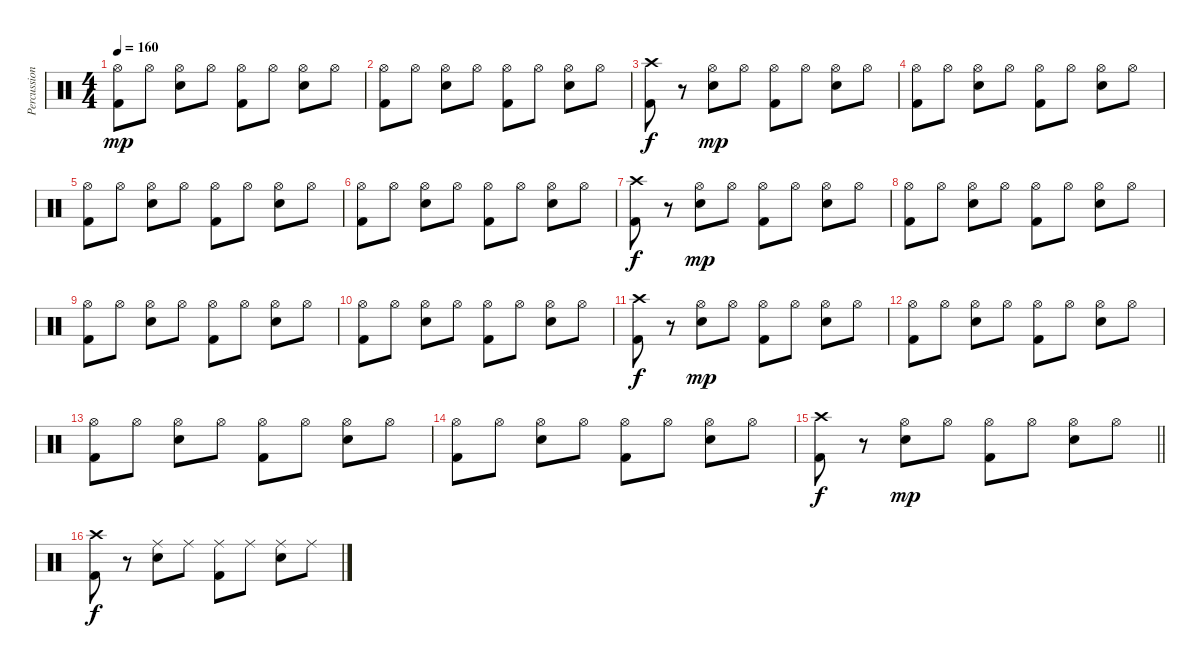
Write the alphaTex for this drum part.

\track ("Percussion - live 1983" "Percussion") {mute instrument percussion}
\staff {score}
\articulation defaults
\ts (4 4)
\tempo 160
\clef neutral
\ks c
("Hi-Hat (open)" "Kick (hit) 2").8{dy mp} "Hi-Hat (open)".8 ("Hi-Hat (open)" "Snare (hit) 2").8 "Hi-Hat (open)".8 ("Hi-Hat (open)" "Kick (hit) 2").8 "Hi-Hat (open)".8 ("Hi-Hat (open)" "Snare (hit) 2").8 "Hi-Hat (open)".8 |
("Hi-Hat (open)" "Kick (hit) 2").8 "Hi-Hat (open)".8 ("Hi-Hat (open)" "Snare (hit) 2").8 "Hi-Hat (open)".8 ("Hi-Hat (open)" "Kick (hit) 2").8 "Hi-Hat (open)".8 ("Hi-Hat (open)" "Snare (hit) 2").8 "Hi-Hat (open)".8 |
("Crash high (hit)" "Kick (hit) 2").8{dy f} r.8 ("Hi-Hat (open)" "Snare (hit) 2").8{dy mp} "Hi-Hat (open)".8 ("Hi-Hat (open)" "Kick (hit) 2").8 "Hi-Hat (open)".8 ("Hi-Hat (open)" "Snare (hit) 2").8 "Hi-Hat (open)".8 |
("Hi-Hat (open)" "Kick (hit) 2").8 "Hi-Hat (open)".8 ("Hi-Hat (open)" "Snare (hit) 2").8 "Hi-Hat (open)".8 ("Hi-Hat (open)" "Kick (hit) 2").8 "Hi-Hat (open)".8 ("Hi-Hat (open)" "Snare (hit) 2").8 "Hi-Hat (open)".8 |
("Hi-Hat (open)" "Kick (hit) 2").8 "Hi-Hat (open)".8 ("Hi-Hat (open)" "Snare (hit) 2").8 "Hi-Hat (open)".8 ("Hi-Hat (open)" "Kick (hit) 2").8 "Hi-Hat (open)".8 ("Hi-Hat (open)" "Snare (hit) 2").8 "Hi-Hat (open)".8 |
("Hi-Hat (open)" "Kick (hit) 2").8 "Hi-Hat (open)".8 ("Hi-Hat (open)" "Snare (hit) 2").8 "Hi-Hat (open)".8 ("Hi-Hat (open)" "Kick (hit) 2").8 "Hi-Hat (open)".8 ("Hi-Hat (open)" "Snare (hit) 2").8 "Hi-Hat (open)".8 |
("Crash high (hit)" "Kick (hit) 2").8{dy f} r.8 ("Hi-Hat (open)" "Snare (hit) 2").8{dy mp} "Hi-Hat (open)".8 ("Hi-Hat (open)" "Kick (hit) 2").8 "Hi-Hat (open)".8 ("Hi-Hat (open)" "Snare (hit) 2").8 "Hi-Hat (open)".8 |
("Hi-Hat (open)" "Kick (hit) 2").8 "Hi-Hat (open)".8 ("Hi-Hat (open)" "Snare (hit) 2").8 "Hi-Hat (open)".8 ("Hi-Hat (open)" "Kick (hit) 2").8 "Hi-Hat (open)".8 ("Hi-Hat (open)" "Snare (hit) 2").8 "Hi-Hat (open)".8 |
("Hi-Hat (open)" "Kick (hit) 2").8 "Hi-Hat (open)".8 ("Hi-Hat (open)" "Snare (hit) 2").8 "Hi-Hat (open)".8 ("Hi-Hat (open)" "Kick (hit) 2").8 "Hi-Hat (open)".8 ("Hi-Hat (open)" "Snare (hit) 2").8 "Hi-Hat (open)".8 |
("Hi-Hat (open)" "Kick (hit) 2").8 "Hi-Hat (open)".8 ("Hi-Hat (open)" "Snare (hit) 2").8 "Hi-Hat (open)".8 ("Hi-Hat (open)" "Kick (hit) 2").8 "Hi-Hat (open)".8 ("Hi-Hat (open)" "Snare (hit) 2").8 "Hi-Hat (open)".8 |
("Crash high (hit)" "Kick (hit) 2").8{dy f} r.8 ("Hi-Hat (open)" "Snare (hit) 2").8{dy mp} "Hi-Hat (open)".8 ("Hi-Hat (open)" "Kick (hit) 2").8 "Hi-Hat (open)".8 ("Hi-Hat (open)" "Snare (hit) 2").8 "Hi-Hat (open)".8 |
("Hi-Hat (open)" "Kick (hit) 2").8 "Hi-Hat (open)".8 ("Hi-Hat (open)" "Snare (hit) 2").8 "Hi-Hat (open)".8 ("Hi-Hat (open)" "Kick (hit) 2").8 "Hi-Hat (open)".8 ("Hi-Hat (open)" "Snare (hit) 2").8 "Hi-Hat (open)".8 |
("Hi-Hat (open)" "Kick (hit) 2").8 "Hi-Hat (open)".8 ("Hi-Hat (open)" "Snare (hit) 2").8 "Hi-Hat (open)".8 ("Hi-Hat (open)" "Kick (hit) 2").8 "Hi-Hat (open)".8 ("Hi-Hat (open)" "Snare (hit) 2").8 "Hi-Hat (open)".8 |
("Hi-Hat (open)" "Kick (hit) 2").8 "Hi-Hat (open)".8 ("Hi-Hat (open)" "Snare (hit) 2").8 "Hi-Hat (open)".8 ("Hi-Hat (open)" "Kick (hit) 2").8 "Hi-Hat (open)".8 ("Hi-Hat (open)" "Snare (hit) 2").8 "Hi-Hat (open)".8 |
\barLineRight lightlight
("Crash high (hit)" "Kick (hit) 2").8{dy f} r.8 ("Hi-Hat (open)" "Snare (hit) 2").8{dy mp} "Hi-Hat (open)".8 ("Hi-Hat (open)" "Kick (hit) 2").8 "Hi-Hat (open)".8 ("Hi-Hat (open)" "Snare (hit) 2").8 "Hi-Hat (open)".8 |
("Crash high (hit)" "Kick (hit) 2").8{dy f} r.8 ("Ride (middle)" "Snare (hit) 2").8 "Ride (middle)".8 ("Ride (middle)" "Kick (hit) 2").8 "Ride (middle)".8 ("Ride (middle)" "Snare (hit) 2").8 "Ride (middle)".8
